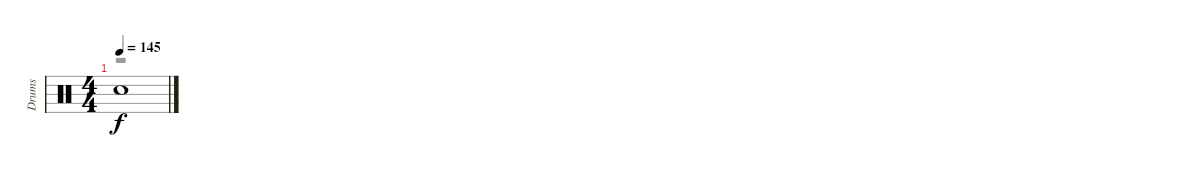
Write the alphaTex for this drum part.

\track ("Drums" "Drums") {instrument percussion}
\staff {score}
\articulation defaults
\voice
\ts (4 4)
\tempo 145
\clef neutral
\ks c "Snare (hit)"{t}.1{dy f}
\voice
\clef neutral
\ks c
r.1{dy fff}
